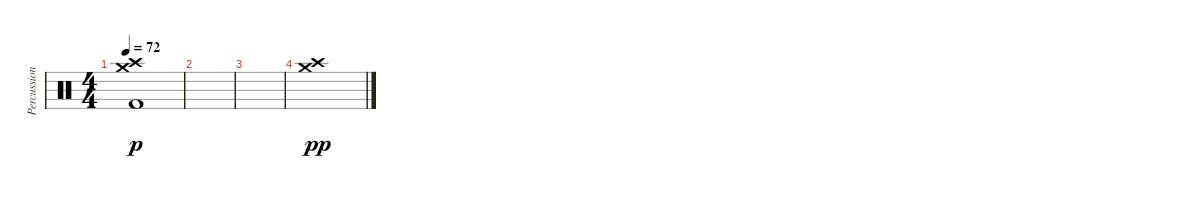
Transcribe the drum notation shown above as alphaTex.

\track ("Percussion" "Percussion") {instrument percussion}
\staff {score}
\articulation defaults
\ts (4 4)
\tempo 72
\clef neutral
\ks c
("Crash medium (hit)" "Crash high (hit)" "Kick (hit) 2").1{dy p} |
|
|
("Crash high (hit)" "Crash medium (hit)").1{dy pp}
